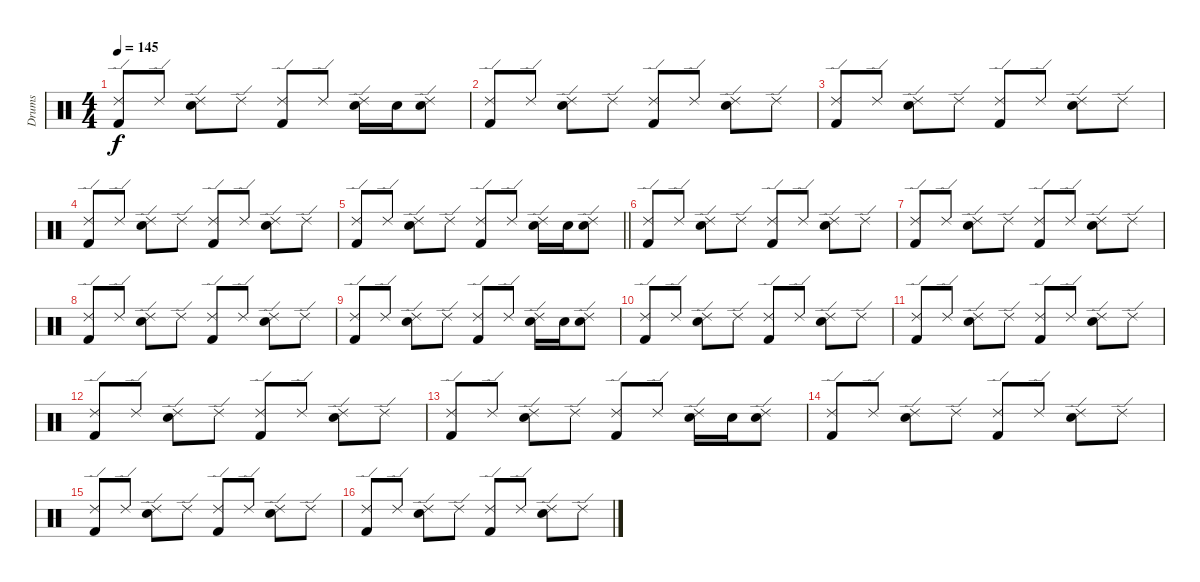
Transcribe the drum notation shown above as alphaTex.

\track ("Drums" "Drums") {instrument percussion}
\staff {score}
\articulation defaults
\ts (4 4)
\tempo 145
\clef neutral
\ks c
("Kick (hit) 2" "Ride (edge) 2").8{dy f} "Ride (edge) 2".8 ("Electric Snare (hit)" "Ride (edge) 2").8 "Ride (edge) 2".8 ("Kick (hit) 2" "Ride (edge) 2").8 "Ride (edge) 2".8 ("Electric Snare (hit)" "Ride (edge) 2").16 "Electric Snare (hit)".16 ("Electric Snare (hit)" "Ride (edge) 2").8 |
("Kick (hit) 2" "Ride (edge) 2").8 "Ride (edge) 2".8 ("Electric Snare (hit)" "Ride (edge) 2").8 "Ride (edge) 2".8 ("Kick (hit) 2" "Ride (edge) 2").8 "Ride (edge) 2".8 ("Electric Snare (hit)" "Ride (edge) 2").8 "Ride (edge) 2".8 |
("Kick (hit) 2" "Ride (edge) 2").8 "Ride (edge) 2".8 ("Electric Snare (hit)" "Ride (edge) 2").8 "Ride (edge) 2".8 ("Kick (hit) 2" "Ride (edge) 2").8 "Ride (edge) 2".8 ("Electric Snare (hit)" "Ride (edge) 2").8 "Ride (edge) 2".8 |
("Kick (hit) 2" "Ride (edge) 2").8 "Ride (edge) 2".8 ("Electric Snare (hit)" "Ride (edge) 2").8 "Ride (edge) 2".8 ("Kick (hit) 2" "Ride (edge) 2").8 "Ride (edge) 2".8 ("Electric Snare (hit)" "Ride (edge) 2").8 "Ride (edge) 2".8 |
\barLineRight lightlight
("Kick (hit) 2" "Ride (edge) 2").8 "Ride (edge) 2".8 ("Electric Snare (hit)" "Ride (edge) 2").8 "Ride (edge) 2".8 ("Kick (hit) 2" "Ride (edge) 2").8 "Ride (edge) 2".8 ("Electric Snare (hit)" "Ride (edge) 2").16 "Electric Snare (hit)".16 ("Electric Snare (hit)" "Ride (edge) 2").8 |
("Kick (hit) 2" "Ride (edge) 2").8 "Ride (edge) 2".8 ("Electric Snare (hit)" "Ride (edge) 2").8 "Ride (edge) 2".8 ("Kick (hit) 2" "Ride (edge) 2").8 "Ride (edge) 2".8 ("Electric Snare (hit)" "Ride (edge) 2").8 "Ride (edge) 2".8 |
("Kick (hit) 2" "Ride (edge) 2").8 "Ride (edge) 2".8 ("Electric Snare (hit)" "Ride (edge) 2").8 "Ride (edge) 2".8 ("Kick (hit) 2" "Ride (edge) 2").8 "Ride (edge) 2".8 ("Electric Snare (hit)" "Ride (edge) 2").8 "Ride (edge) 2".8 |
("Kick (hit) 2" "Ride (edge) 2").8 "Ride (edge) 2".8 ("Electric Snare (hit)" "Ride (edge) 2").8 "Ride (edge) 2".8 ("Kick (hit) 2" "Ride (edge) 2").8 "Ride (edge) 2".8 ("Electric Snare (hit)" "Ride (edge) 2").8 "Ride (edge) 2".8 |
("Kick (hit) 2" "Ride (edge) 2").8 "Ride (edge) 2".8 ("Electric Snare (hit)" "Ride (edge) 2").8 "Ride (edge) 2".8 ("Kick (hit) 2" "Ride (edge) 2").8 "Ride (edge) 2".8 ("Electric Snare (hit)" "Ride (edge) 2").16 "Electric Snare (hit)".16 ("Electric Snare (hit)" "Ride (edge) 2").8 |
("Kick (hit) 2" "Ride (edge) 2").8 "Ride (edge) 2".8 ("Electric Snare (hit)" "Ride (edge) 2").8 "Ride (edge) 2".8 ("Kick (hit) 2" "Ride (edge) 2").8 "Ride (edge) 2".8 ("Electric Snare (hit)" "Ride (edge) 2").8 "Ride (edge) 2".8 |
("Kick (hit) 2" "Ride (edge) 2").8 "Ride (edge) 2".8 ("Electric Snare (hit)" "Ride (edge) 2").8 "Ride (edge) 2".8 ("Kick (hit) 2" "Ride (edge) 2").8 "Ride (edge) 2".8 ("Electric Snare (hit)" "Ride (edge) 2").8 "Ride (edge) 2".8 |
("Kick (hit) 2" "Ride (edge) 2").8 "Ride (edge) 2".8 ("Electric Snare (hit)" "Ride (edge) 2").8 "Ride (edge) 2".8 ("Kick (hit) 2" "Ride (edge) 2").8 "Ride (edge) 2".8 ("Electric Snare (hit)" "Ride (edge) 2").8 "Ride (edge) 2".8 |
("Kick (hit) 2" "Ride (edge) 2").8 "Ride (edge) 2".8 ("Electric Snare (hit)" "Ride (edge) 2").8 "Ride (edge) 2".8 ("Kick (hit) 2" "Ride (edge) 2").8 "Ride (edge) 2".8 ("Electric Snare (hit)" "Ride (edge) 2").16 "Electric Snare (hit)".16 ("Electric Snare (hit)" "Ride (edge) 2").8 |
("Kick (hit) 2" "Ride (edge) 2").8{volume 0} "Ride (edge) 2".8 ("Electric Snare (hit)" "Ride (edge) 2").8 "Ride (edge) 2".8 ("Kick (hit) 2" "Ride (edge) 2").8 "Ride (edge) 2".8 ("Electric Snare (hit)" "Ride (edge) 2").8 "Ride (edge) 2".8 |
("Kick (hit) 2" "Ride (edge) 2").8 "Ride (edge) 2".8 ("Electric Snare (hit)" "Ride (edge) 2").8 "Ride (edge) 2".8 ("Kick (hit) 2" "Ride (edge) 2").8 "Ride (edge) 2".8 ("Electric Snare (hit)" "Ride (edge) 2").8 "Ride (edge) 2".8 |
("Kick (hit) 2" "Ride (edge) 2").8 "Ride (edge) 2".8 ("Electric Snare (hit)" "Ride (edge) 2").8 "Ride (edge) 2".8 ("Kick (hit) 2" "Ride (edge) 2").8 "Ride (edge) 2".8 ("Electric Snare (hit)" "Ride (edge) 2").8 "Ride (edge) 2".8
